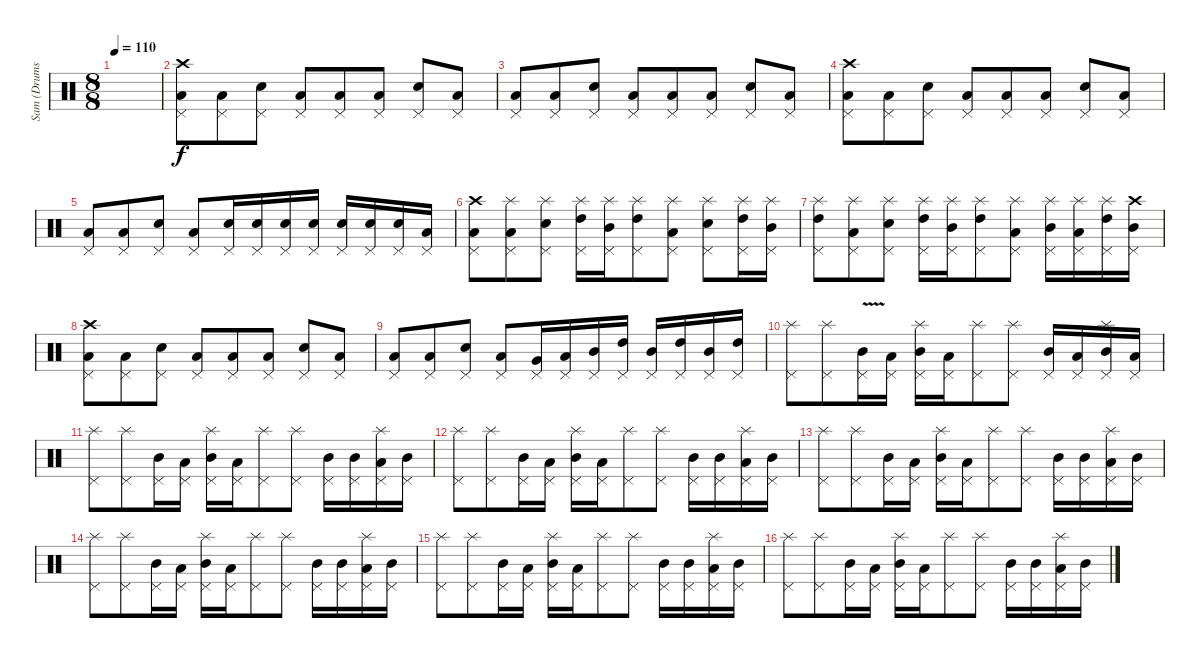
\track ("Sam (Drums)" "Sam (Drums") {instrument percussion}
\staff {score}
\articulation defaults
\ts (8 8)
\tempo 110
\clef neutral
\ks c
|
("Crash high (hit)" "Low Tom (hit)" "Pedal Hi-Hat (hit)").8 ("Low Tom (hit)" "Pedal Hi-Hat (hit)").8 ("Snare (hit) 2" "Pedal Hi-Hat (hit)").8 ("Low Tom (hit)" "Pedal Hi-Hat (hit)").8 ("Low Tom (hit)" "Pedal Hi-Hat (hit)").8 ("Low Tom (hit)" "Pedal Hi-Hat (hit)").8 ("Snare (hit) 2" "Pedal Hi-Hat (hit)").8 ("Low Tom (hit)" "Pedal Hi-Hat (hit)").8 |
("Low Tom (hit)" "Pedal Hi-Hat (hit)").8 ("Low Tom (hit)" "Pedal Hi-Hat (hit)").8 ("Snare (hit) 2" "Pedal Hi-Hat (hit)").8 ("Low Tom (hit)" "Pedal Hi-Hat (hit)").8 ("Low Tom (hit)" "Pedal Hi-Hat (hit)").8 ("Low Tom (hit)" "Pedal Hi-Hat (hit)").8 ("Snare (hit) 2" "Pedal Hi-Hat (hit)").8 ("Low Tom (hit)" "Pedal Hi-Hat (hit)").8 |
("Crash high (hit)" "Low Tom (hit)" "Pedal Hi-Hat (hit)").8 ("Low Tom (hit)" "Pedal Hi-Hat (hit)").8 ("Snare (hit) 2" "Pedal Hi-Hat (hit)").8 ("Low Tom (hit)" "Pedal Hi-Hat (hit)").8 ("Low Tom (hit)" "Pedal Hi-Hat (hit)").8 ("Low Tom (hit)" "Pedal Hi-Hat (hit)").8 ("Snare (hit) 2" "Pedal Hi-Hat (hit)").8 ("Low Tom (hit)" "Pedal Hi-Hat (hit)").8 |
("Low Tom (hit)" "Pedal Hi-Hat (hit)").8 ("Low Tom (hit)" "Pedal Hi-Hat (hit)").8 ("Snare (hit) 2" "Pedal Hi-Hat (hit)").8 ("Low Tom (hit)" "Pedal Hi-Hat (hit)").8 ("Snare (hit) 2" "Pedal Hi-Hat (hit)").16 ("Electric Snare (hit)" "Pedal Hi-Hat (hit)").16 ("Electric Snare (hit)" "Pedal Hi-Hat (hit)").16 ("Electric Snare (hit)" "Pedal Hi-Hat (hit)").16 ("Electric Snare (hit)" "Pedal Hi-Hat (hit)").16 ("Electric Snare (hit)" "Pedal Hi-Hat (hit)").16 ("Electric Snare (hit)" "Pedal Hi-Hat (hit)").16 ("Low Tom (hit)" "Pedal Hi-Hat (hit)").16 |
("Crash high (hit)" "Low Tom (hit)" "Pedal Hi-Hat (hit)").8 ("Splash (hit)" "Low Tom (hit)" "Pedal Hi-Hat (hit)").8 ("Splash (hit)" "Snare (hit) 2" "Pedal Hi-Hat (hit)").8 ("Splash (hit)" "High Tom (hit)" "Pedal Hi-Hat (hit)").16 ("Splash (hit)" "Mid Tom (hit)" "Pedal Hi-Hat (hit)").16 ("Splash (hit)" "High Tom (hit)" "Pedal Hi-Hat (hit)").8 ("Splash (hit)" "Low Tom (hit)" "Pedal Hi-Hat (hit)").8 ("Splash (hit)" "Snare (hit) 2" "Pedal Hi-Hat (hit)").8 ("Splash (hit)" "High Tom (hit)" "Pedal Hi-Hat (hit)").16 ("Splash (hit)" "Mid Tom (hit)" "Pedal Hi-Hat (hit)").16 |
("Splash (hit)" "High Tom (hit)" "Pedal Hi-Hat (hit)").8 ("Splash (hit)" "Low Tom (hit)" "Pedal Hi-Hat (hit)").8 ("Splash (hit)" "Snare (hit) 2" "Pedal Hi-Hat (hit)").8 ("Splash (hit)" "High Tom (hit)" "Pedal Hi-Hat (hit)").16 ("Splash (hit)" "Mid Tom (hit)" "Pedal Hi-Hat (hit)").16 ("Splash (hit)" "High Tom (hit)" "Pedal Hi-Hat (hit)").8 ("Splash (hit)" "Low Tom (hit)" "Pedal Hi-Hat (hit)").8 ("Splash (hit)" "Mid Tom (hit)" "Pedal Hi-Hat (hit)").16 ("Splash (hit)" "Low Tom (hit)" "Pedal Hi-Hat (hit)").16 ("Splash (hit)" "High Tom (hit)" "Pedal Hi-Hat (hit)").16 ("Crash high (hit)" "Mid Tom (hit)" "Pedal Hi-Hat (hit)").16 |
("Crash high (hit)" "Low Tom (hit)" "Pedal Hi-Hat (hit)").8 ("Low Tom (hit)" "Pedal Hi-Hat (hit)").8 ("Snare (hit) 2" "Pedal Hi-Hat (hit)").8 ("Low Tom (hit)" "Pedal Hi-Hat (hit)").8 ("Low Tom (hit)" "Pedal Hi-Hat (hit)").8 ("Low Tom (hit)" "Pedal Hi-Hat (hit)").8 ("Snare (hit) 2" "Pedal Hi-Hat (hit)").8 ("Low Tom (hit)" "Pedal Hi-Hat (hit)").8 |
("Low Tom (hit)" "Pedal Hi-Hat (hit)").8 ("Low Tom (hit)" "Pedal Hi-Hat (hit)").8 ("Snare (hit) 2" "Pedal Hi-Hat (hit)").8 ("Low Tom (hit)" "Pedal Hi-Hat (hit)").8 ("Very Low Tom (hit)" "Pedal Hi-Hat (hit)").16 ("Low Tom (hit)" "Pedal Hi-Hat (hit)").16 ("Mid Tom (hit)" "Pedal Hi-Hat (hit)").16 ("High Tom (hit)" "Pedal Hi-Hat (hit)").16 ("Mid Tom (hit)" "Pedal Hi-Hat (hit)").16 ("High Tom (hit)" "Pedal Hi-Hat (hit)").16 ("Mid Tom (hit)" "Pedal Hi-Hat (hit)").16 ("High Tom (hit)" "Pedal Hi-Hat (hit)").16 |
("Splash (hit)" "Pedal Hi-Hat (hit)").8 ("Splash (hit)" "Pedal Hi-Hat (hit)").8 ("Mid Tom (hit)"{v pm} "Pedal Hi-Hat (hit)"{pm}).16 ("Low Tom (hit)" "Pedal Hi-Hat (hit)").16 ("Splash (hit)" "Mid Tom (hit)" "Pedal Hi-Hat (hit)").16 ("Low Tom (hit)" "Pedal Hi-Hat (hit)").16 ("Splash (hit)" "Pedal Hi-Hat (hit)").8 ("Splash (hit)" "Pedal Hi-Hat (hit)").8 ("Mid Tom (hit)" "Pedal Hi-Hat (hit)").16 ("Low Tom (hit)" "Pedal Hi-Hat (hit)").16 ("Splash (hit)" "Mid Tom (hit)" "Pedal Hi-Hat (hit)").16 ("Low Tom (hit)" "Pedal Hi-Hat (hit)").16 |
("Splash (hit)" "Pedal Hi-Hat (hit)").8 ("Splash (hit)" "Pedal Hi-Hat (hit)").8 ("Mid Tom (hit)" "Pedal Hi-Hat (hit)").16 ("Low Tom (hit)" "Pedal Hi-Hat (hit)").16 ("Splash (hit)" "Mid Tom (hit)" "Pedal Hi-Hat (hit)").16 ("Low Tom (hit)" "Pedal Hi-Hat (hit)").16 ("Splash (hit)" "Pedal Hi-Hat (hit)").8 ("Splash (hit)" "Pedal Hi-Hat (hit)").8 ("Mid Tom (hit)" "Pedal Hi-Hat (hit)").16 ("Mid Tom (hit)" "Pedal Hi-Hat (hit)").16 ("Splash (hit)" "Low Tom (hit)" "Pedal Hi-Hat (hit)").16 ("Mid Tom (hit)" "Pedal Hi-Hat (hit)").16 |
("Splash (hit)" "Pedal Hi-Hat (hit)").8 ("Splash (hit)" "Pedal Hi-Hat (hit)").8 ("Mid Tom (hit)" "Pedal Hi-Hat (hit)").16 ("Low Tom (hit)" "Pedal Hi-Hat (hit)").16 ("Splash (hit)" "Mid Tom (hit)" "Pedal Hi-Hat (hit)").16 ("Low Tom (hit)" "Pedal Hi-Hat (hit)").16 ("Splash (hit)" "Pedal Hi-Hat (hit)").8 ("Splash (hit)" "Pedal Hi-Hat (hit)").8 ("Mid Tom (hit)" "Pedal Hi-Hat (hit)").16 ("Mid Tom (hit)" "Pedal Hi-Hat (hit)").16 ("Splash (hit)" "Low Tom (hit)" "Pedal Hi-Hat (hit)").16 ("Mid Tom (hit)" "Pedal Hi-Hat (hit)").16 |
("Splash (hit)" "Pedal Hi-Hat (hit)").8 ("Splash (hit)" "Pedal Hi-Hat (hit)").8 ("Mid Tom (hit)" "Pedal Hi-Hat (hit)").16 ("Low Tom (hit)" "Pedal Hi-Hat (hit)").16 ("Splash (hit)" "Mid Tom (hit)" "Pedal Hi-Hat (hit)").16 ("Low Tom (hit)" "Pedal Hi-Hat (hit)").16 ("Splash (hit)" "Pedal Hi-Hat (hit)").8 ("Splash (hit)" "Pedal Hi-Hat (hit)").8 ("Mid Tom (hit)" "Pedal Hi-Hat (hit)").16 ("Mid Tom (hit)" "Pedal Hi-Hat (hit)").16 ("Splash (hit)" "Low Tom (hit)" "Pedal Hi-Hat (hit)").16 ("Mid Tom (hit)" "Pedal Hi-Hat (hit)").16 |
("Splash (hit)" "Pedal Hi-Hat (hit)").8 ("Splash (hit)" "Pedal Hi-Hat (hit)").8 ("Mid Tom (hit)" "Pedal Hi-Hat (hit)").16 ("Low Tom (hit)" "Pedal Hi-Hat (hit)").16 ("Splash (hit)" "Mid Tom (hit)" "Pedal Hi-Hat (hit)").16 ("Low Tom (hit)" "Pedal Hi-Hat (hit)").16 ("Splash (hit)" "Pedal Hi-Hat (hit)").8 ("Splash (hit)" "Pedal Hi-Hat (hit)").8 ("Mid Tom (hit)" "Pedal Hi-Hat (hit)").16 ("Mid Tom (hit)" "Pedal Hi-Hat (hit)").16 ("Splash (hit)" "Low Tom (hit)" "Pedal Hi-Hat (hit)").16 ("Mid Tom (hit)" "Pedal Hi-Hat (hit)").16 |
("Splash (hit)" "Pedal Hi-Hat (hit)").8 ("Splash (hit)" "Pedal Hi-Hat (hit)").8 ("Mid Tom (hit)" "Pedal Hi-Hat (hit)").16 ("Low Tom (hit)" "Pedal Hi-Hat (hit)").16 ("Splash (hit)" "Mid Tom (hit)" "Pedal Hi-Hat (hit)").16 ("Low Tom (hit)" "Pedal Hi-Hat (hit)").16 ("Splash (hit)" "Pedal Hi-Hat (hit)").8 ("Splash (hit)" "Pedal Hi-Hat (hit)").8 ("Mid Tom (hit)" "Pedal Hi-Hat (hit)").16 ("Mid Tom (hit)" "Pedal Hi-Hat (hit)").16 ("Splash (hit)" "Low Tom (hit)" "Pedal Hi-Hat (hit)").16 ("Mid Tom (hit)" "Pedal Hi-Hat (hit)").16 |
("Splash (hit)" "Pedal Hi-Hat (hit)").8 ("Splash (hit)" "Pedal Hi-Hat (hit)").8 ("Mid Tom (hit)" "Pedal Hi-Hat (hit)").16 ("Low Tom (hit)" "Pedal Hi-Hat (hit)").16 ("Splash (hit)" "Mid Tom (hit)" "Pedal Hi-Hat (hit)").16 ("Low Tom (hit)" "Pedal Hi-Hat (hit)").16 ("Splash (hit)" "Pedal Hi-Hat (hit)").8 ("Splash (hit)" "Pedal Hi-Hat (hit)").8 ("Mid Tom (hit)" "Pedal Hi-Hat (hit)").16 ("Mid Tom (hit)" "Pedal Hi-Hat (hit)").16 ("Splash (hit)" "Low Tom (hit)" "Pedal Hi-Hat (hit)").16 ("Mid Tom (hit)" "Pedal Hi-Hat (hit)").16
